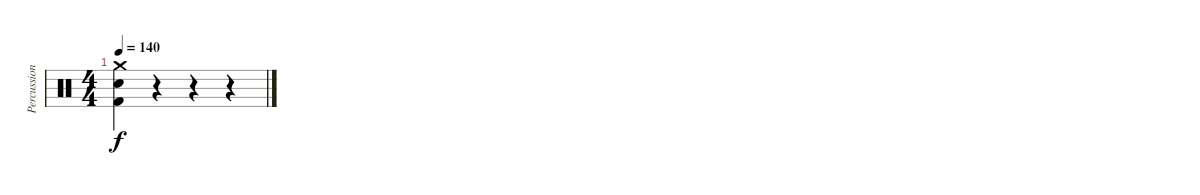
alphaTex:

\track ("Percussion" "Percussion") {instrument percussion}
\staff {score}
\articulation defaults
\ts (4 4)
\tempo 140
\clef neutral
\ks c
("Crash medium (hit)" "Snare (hit) 2" "Kick (hit) 2").4{dy f} r.4 r.4 r.4
